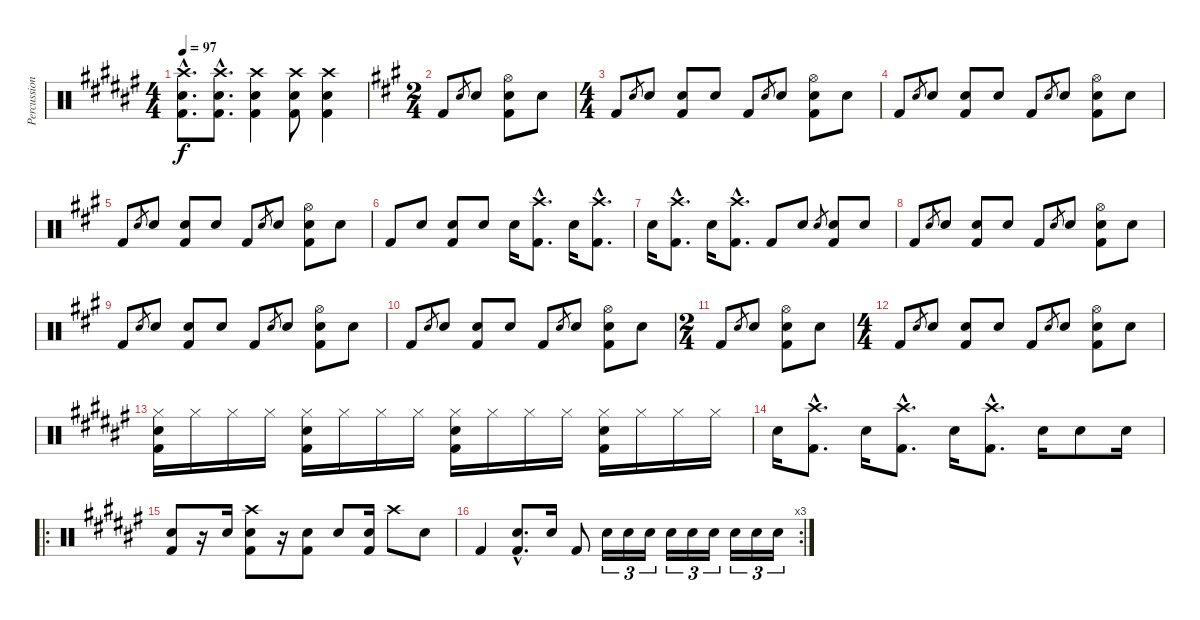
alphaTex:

\track ("Percussion (John Bonham)" "Percussion") {instrument percussion}
\staff {score}
\articulation defaults
\ts (4 4)
\tempo 97
\clef neutral
\ks f#
("Crash high (hit)"{hac} "Snare (hit) 2"{hac} "Kick (hit) 2"{hac}).8{d dy f} ("Crash high (hit)"{hac} "Snare (hit) 2"{hac} "Kick (hit) 2"{hac}).8{d} ("Crash high (hit)" "Snare (hit) 2" "Kick (hit) 2").4 ("Crash high (hit)" "Snare (hit) 2" "Kick (hit) 2").8 ("Crash high (hit)" "Snare (hit) 2" "Kick (hit) 2").4 |
\ts (2 4)
\ks a "Kick (hit) 2".8 "Snare (hit) 2".8{gr} "Snare (hit) 2".8
("Hi-Hat (open)" "Snare (hit) 2" "Kick (hit) 2").8 "Snare (hit) 2".8 |
\ts (4 4)
"Kick (hit) 2".8 "Snare (hit) 2".8{gr} "Snare (hit) 2".8 ("Snare (hit) 2" "Kick (hit) 2").8 "Snare (hit) 2".8 "Kick (hit) 2".8 "Snare (hit) 2".8{gr} "Snare (hit) 2".8 ("Hi-Hat (open)" "Snare (hit) 2" "Kick (hit) 2").8 "Snare (hit) 2".8 |
"Kick (hit) 2".8 "Snare (hit) 2".8{gr} "Snare (hit) 2".8 ("Snare (hit) 2" "Kick (hit) 2").8 "Snare (hit) 2".8 "Kick (hit) 2".8 "Snare (hit) 2".8{gr} "Snare (hit) 2".8 ("Hi-Hat (open)" "Snare (hit) 2" "Kick (hit) 2").8 "Snare (hit) 2".8 |
"Kick (hit) 2".8 "Snare (hit) 2".8{gr} "Snare (hit) 2".8 ("Snare (hit) 2" "Kick (hit) 2").8 "Snare (hit) 2".8 "Kick (hit) 2".8 "Snare (hit) 2".8{gr} "Snare (hit) 2".8 ("Hi-Hat (open)" "Snare (hit) 2" "Kick (hit) 2").8 "Snare (hit) 2".8 |
"Kick (hit) 2".8 "Snare (hit) 2".8 ("Snare (hit) 2" "Kick (hit) 2").8 "Snare (hit) 2".8 "Snare (hit) 2".16 ("Crash high (hit)"{hac} "Kick (hit) 2"{hac}).8{d} "Snare (hit) 2".16 ("Crash high (hit)"{hac} "Kick (hit) 2"{hac}).8{d} |
"Snare (hit) 2".16 ("Crash high (hit)"{hac} "Kick (hit) 2"{hac}).8{d} "Snare (hit) 2".16 ("Crash high (hit)"{hac} "Kick (hit) 2"{hac}).8{d} "Kick (hit) 2".8 "Snare (hit) 2".8 "Snare (hit) 2".8{gr} ("Snare (hit) 2" "Kick (hit) 2").8 "Snare (hit) 2".8 |
"Kick (hit) 2".8 "Snare (hit) 2".8{gr} "Snare (hit) 2".8 ("Snare (hit) 2" "Kick (hit) 2").8 "Snare (hit) 2".8 "Kick (hit) 2".8 "Snare (hit) 2".8{gr} "Snare (hit) 2".8 ("Hi-Hat (open)" "Snare (hit) 2" "Kick (hit) 2").8 "Snare (hit) 2".8 |
"Kick (hit) 2".8 "Snare (hit) 2".8{gr} "Snare (hit) 2".8 ("Snare (hit) 2" "Kick (hit) 2").8 "Snare (hit) 2".8 "Kick (hit) 2".8 "Snare (hit) 2".8{gr} "Snare (hit) 2".8 ("Hi-Hat (open)" "Snare (hit) 2" "Kick (hit) 2").8 "Snare (hit) 2".8 |
"Kick (hit) 2".8 "Snare (hit) 2".8{gr} "Snare (hit) 2".8 ("Snare (hit) 2" "Kick (hit) 2").8 "Snare (hit) 2".8 "Kick (hit) 2".8 "Snare (hit) 2".8{gr} "Snare (hit) 2".8 ("Hi-Hat (open)" "Snare (hit) 2" "Kick (hit) 2").8 "Snare (hit) 2".8 |
\ts (2 4)
"Kick (hit) 2".8 "Snare (hit) 2".8{gr} "Snare (hit) 2".8 ("Hi-Hat (open)" "Snare (hit) 2" "Kick (hit) 2").8 "Snare (hit) 2".8 |
\ts (4 4)
"Kick (hit) 2".8 "Snare (hit) 2".8{gr} "Snare (hit) 2".8 ("Snare (hit) 2" "Kick (hit) 2").8 "Snare (hit) 2".8 "Kick (hit) 2".8 "Snare (hit) 2".8{gr} "Snare (hit) 2".8 ("Hi-Hat (open)" "Snare (hit) 2" "Kick (hit) 2").8 "Snare (hit) 2".8 |
\ks f#
("Hi-Hat (closed)" "Snare (hit) 2" "Kick (hit) 2").16 "Hi-Hat (closed)".16 "Hi-Hat (closed)".16 "Hi-Hat (closed)".16 ("Hi-Hat (closed)" "Snare (hit) 2" "Kick (hit) 2").16 "Hi-Hat (closed)".16 "Hi-Hat (closed)".16 "Hi-Hat (closed)".16 ("Hi-Hat (closed)" "Snare (hit) 2" "Kick (hit) 2").16 "Hi-Hat (closed)".16 "Hi-Hat (closed)".16 "Hi-Hat (closed)".16 ("Hi-Hat (closed)" "Snare (hit) 2" "Kick (hit) 2").16 "Hi-Hat (closed)".16 "Hi-Hat (closed)".16 "Hi-Hat (closed)".16 |
"Snare (hit) 2".16 ("Crash high (hit)"{hac} "Kick (hit) 2"{hac}).8{d} "Snare (hit) 2".16 ("Crash high (hit)"{hac} "Kick (hit) 2"{hac}).8{d} "Snare (hit) 2".16 ("Crash high (hit)"{hac} "Kick (hit) 2"{hac}).8{d} "Snare (hit) 2".16 "Snare (hit) 2".8 "Snare (hit) 2".16 |
\ro
("Snare (hit) 2" "Kick (hit) 2").8 r.16 "Snare (hit) 2".16 ("Crash high (hit)" "Snare (hit) 2" "Kick (hit) 2").8 r.16 ("Snare (hit) 2" "Kick (hit) 2").8 "Snare (hit) 2".8 ("Snare (hit) 2" "Kick (hit) 2").16 "Crash high (hit)".8 "Snare (hit) 2".8 |
\rc 3 "Kick (hit) 2".4
("Snare (hit) 2"{hac} "Kick (hit) 2"{hac}).8{d} "Snare (hit) 2".16 "Kick (hit) 2".8 "Snare (hit) 2".16{tu (3 2)} "Snare (hit) 2".16{tu (3 2)} "Snare (hit) 2".16{tu (3 2)} "Snare (hit) 2".16{tu (3 2)} "Snare (hit) 2".16{tu (3 2)} "Snare (hit) 2".16{tu (3 2)} "Snare (hit) 2".16{tu (3 2)} "Snare (hit) 2".16{tu (3 2)} "Snare (hit) 2".16{tu (3 2)}
